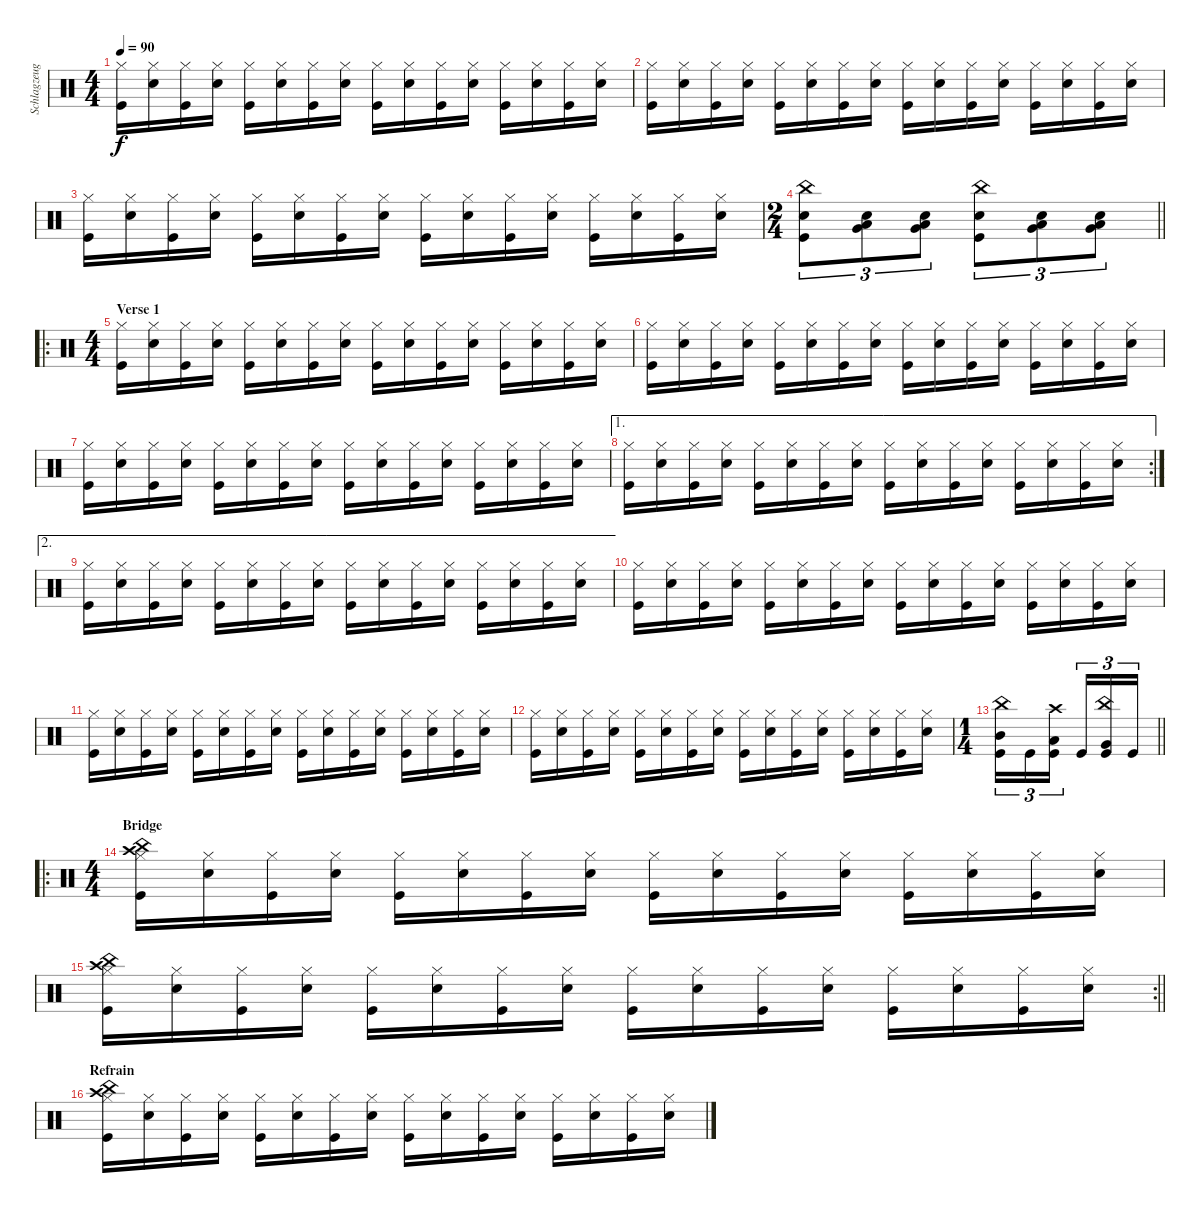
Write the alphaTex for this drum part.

\track ("Schlagzeug" "Schlagzeug") {instrument percussion}
\staff {score}
\articulation defaults
\ts (4 4)
\tempo 90
\clef neutral
\ks c
("Hi-Hat (closed)" "Kick (hit)").16{dy f} ("Hi-Hat (closed)" "Snare (hit) 2").16 ("Hi-Hat (closed)" "Kick (hit)").16 ("Hi-Hat (closed)" "Snare (hit) 2").16 ("Hi-Hat (closed)" "Kick (hit)").16 ("Hi-Hat (closed)" "Snare (hit) 2").16 ("Hi-Hat (closed)" "Kick (hit)").16 ("Hi-Hat (closed)" "Snare (hit) 2").16 ("Hi-Hat (closed)" "Kick (hit)").16 ("Hi-Hat (closed)" "Snare (hit) 2").16 ("Hi-Hat (closed)" "Kick (hit)").16 ("Hi-Hat (closed)" "Snare (hit) 2").16 ("Hi-Hat (closed)" "Kick (hit)").16 ("Hi-Hat (closed)" "Snare (hit) 2").16 ("Hi-Hat (closed)" "Kick (hit)").16 ("Hi-Hat (closed)" "Snare (hit) 2").16 |
("Hi-Hat (closed)" "Kick (hit)").16 ("Hi-Hat (closed)" "Snare (hit) 2").16 ("Hi-Hat (closed)" "Kick (hit)").16 ("Hi-Hat (closed)" "Snare (hit) 2").16 ("Hi-Hat (closed)" "Kick (hit)").16 ("Hi-Hat (closed)" "Snare (hit) 2").16 ("Hi-Hat (closed)" "Kick (hit)").16 ("Hi-Hat (closed)" "Snare (hit) 2").16 ("Hi-Hat (closed)" "Kick (hit)").16 ("Hi-Hat (closed)" "Snare (hit) 2").16 ("Hi-Hat (closed)" "Kick (hit)").16 ("Hi-Hat (closed)" "Snare (hit) 2").16 ("Hi-Hat (closed)" "Kick (hit)").16 ("Hi-Hat (closed)" "Snare (hit) 2").16 ("Hi-Hat (closed)" "Kick (hit)").16 ("Hi-Hat (closed)" "Snare (hit) 2").16 |
("Hi-Hat (closed)" "Kick (hit)").16 ("Hi-Hat (closed)" "Snare (hit) 2").16 ("Hi-Hat (closed)" "Kick (hit)").16 ("Hi-Hat (closed)" "Snare (hit) 2").16 ("Hi-Hat (closed)" "Kick (hit)").16 ("Hi-Hat (closed)" "Snare (hit) 2").16 ("Hi-Hat (closed)" "Kick (hit)").16 ("Hi-Hat (closed)" "Snare (hit) 2").16 ("Hi-Hat (closed)" "Kick (hit)").16 ("Hi-Hat (closed)" "Snare (hit) 2").16 ("Hi-Hat (closed)" "Kick (hit)").16 ("Hi-Hat (closed)" "Snare (hit) 2").16 ("Hi-Hat (closed)" "Kick (hit)").16 ("Hi-Hat (closed)" "Snare (hit) 2").16 ("Hi-Hat (closed)" "Kick (hit)").16 ("Hi-Hat (closed)" "Snare (hit) 2").16 |
\ts (2 4)
\barLineRight lightlight
("China (hit)" "Snare (hit) 2" "Kick (hit)").8{tu (3 2)} ("Very Low Tom (hit)" "Low Tom (hit)" "Snare (hit) 2").8{tu (3 2)} ("Very Low Tom (hit)" "Low Tom (hit)" "Snare (hit) 2").8{tu (3 2)} ("China (hit)" "Snare (hit) 2" "Kick (hit)").8{tu (3 2)} ("Very Low Tom (hit)" "Low Tom (hit)" "Snare (hit) 2").8{tu (3 2)} ("Very Low Tom (hit)" "Low Tom (hit)" "Snare (hit) 2").8{tu (3 2)} |
\ro
\ts (4 4)
\section ("" "Verse 1")
("Hi-Hat (closed)" "Kick (hit)").16 ("Hi-Hat (closed)" "Snare (hit) 2").16 ("Hi-Hat (closed)" "Kick (hit)").16 ("Hi-Hat (closed)" "Snare (hit) 2").16 ("Hi-Hat (closed)" "Kick (hit)").16 ("Hi-Hat (closed)" "Snare (hit) 2").16 ("Hi-Hat (closed)" "Kick (hit)").16 ("Hi-Hat (closed)" "Snare (hit) 2").16 ("Hi-Hat (closed)" "Kick (hit)").16 ("Hi-Hat (closed)" "Snare (hit) 2").16 ("Hi-Hat (closed)" "Kick (hit)").16 ("Hi-Hat (closed)" "Snare (hit) 2").16 ("Hi-Hat (closed)" "Kick (hit)").16 ("Hi-Hat (closed)" "Snare (hit) 2").16 ("Hi-Hat (closed)" "Kick (hit)").16 ("Hi-Hat (closed)" "Snare (hit) 2").16 |
("Hi-Hat (closed)" "Kick (hit)").16 ("Hi-Hat (closed)" "Snare (hit) 2").16 ("Hi-Hat (closed)" "Kick (hit)").16 ("Hi-Hat (closed)" "Snare (hit) 2").16 ("Hi-Hat (closed)" "Kick (hit)").16 ("Hi-Hat (closed)" "Snare (hit) 2").16 ("Hi-Hat (closed)" "Kick (hit)").16 ("Hi-Hat (closed)" "Snare (hit) 2").16 ("Hi-Hat (closed)" "Kick (hit)").16 ("Hi-Hat (closed)" "Snare (hit) 2").16 ("Hi-Hat (closed)" "Kick (hit)").16 ("Hi-Hat (closed)" "Snare (hit) 2").16 ("Hi-Hat (closed)" "Kick (hit)").16 ("Hi-Hat (closed)" "Snare (hit) 2").16 ("Hi-Hat (closed)" "Kick (hit)").16 ("Hi-Hat (closed)" "Snare (hit) 2").16 |
("Hi-Hat (closed)" "Kick (hit)").16 ("Hi-Hat (closed)" "Snare (hit) 2").16 ("Hi-Hat (closed)" "Kick (hit)").16 ("Hi-Hat (closed)" "Snare (hit) 2").16 ("Hi-Hat (closed)" "Kick (hit)").16 ("Hi-Hat (closed)" "Snare (hit) 2").16 ("Hi-Hat (closed)" "Kick (hit)").16 ("Hi-Hat (closed)" "Snare (hit) 2").16 ("Hi-Hat (closed)" "Kick (hit)").16 ("Hi-Hat (closed)" "Snare (hit) 2").16 ("Hi-Hat (closed)" "Kick (hit)").16 ("Hi-Hat (closed)" "Snare (hit) 2").16 ("Hi-Hat (closed)" "Kick (hit)").16 ("Hi-Hat (closed)" "Snare (hit) 2").16 ("Hi-Hat (closed)" "Kick (hit)").16 ("Hi-Hat (closed)" "Snare (hit) 2").16 |
\ae 1
\rc 2
("Hi-Hat (closed)" "Kick (hit)").16 ("Hi-Hat (closed)" "Snare (hit) 2").16 ("Hi-Hat (closed)" "Kick (hit)").16 ("Hi-Hat (closed)" "Snare (hit) 2").16 ("Hi-Hat (closed)" "Kick (hit)").16 ("Hi-Hat (closed)" "Snare (hit) 2").16 ("Hi-Hat (closed)" "Kick (hit)").16 ("Hi-Hat (closed)" "Snare (hit) 2").16 ("Hi-Hat (closed)" "Kick (hit)").16 ("Hi-Hat (closed)" "Snare (hit) 2").16 ("Hi-Hat (closed)" "Kick (hit)").16 ("Hi-Hat (closed)" "Snare (hit) 2").16 ("Hi-Hat (closed)" "Kick (hit)").16 ("Hi-Hat (closed)" "Snare (hit) 2").16 ("Hi-Hat (closed)" "Kick (hit)").16 ("Hi-Hat (closed)" "Snare (hit) 2").16 |
\ae 2
("Hi-Hat (closed)" "Kick (hit)").16 ("Hi-Hat (closed)" "Snare (hit) 2").16 ("Hi-Hat (closed)" "Kick (hit)").16 ("Hi-Hat (closed)" "Snare (hit) 2").16 ("Hi-Hat (closed)" "Kick (hit)").16 ("Hi-Hat (closed)" "Snare (hit) 2").16 ("Hi-Hat (closed)" "Kick (hit)").16 ("Hi-Hat (closed)" "Snare (hit) 2").16 ("Hi-Hat (closed)" "Kick (hit)").16 ("Hi-Hat (closed)" "Snare (hit) 2").16 ("Hi-Hat (closed)" "Kick (hit)").16 ("Hi-Hat (closed)" "Snare (hit) 2").16 ("Hi-Hat (closed)" "Kick (hit)").16 ("Hi-Hat (closed)" "Snare (hit) 2").16 ("Hi-Hat (closed)" "Kick (hit)").16 ("Hi-Hat (closed)" "Snare (hit) 2").16 |
("Hi-Hat (closed)" "Kick (hit)").16 ("Hi-Hat (closed)" "Snare (hit) 2").16 ("Hi-Hat (closed)" "Kick (hit)").16 ("Hi-Hat (closed)" "Snare (hit) 2").16 ("Hi-Hat (closed)" "Kick (hit)").16 ("Hi-Hat (closed)" "Snare (hit) 2").16 ("Hi-Hat (closed)" "Kick (hit)").16 ("Hi-Hat (closed)" "Snare (hit) 2").16 ("Hi-Hat (closed)" "Kick (hit)").16 ("Hi-Hat (closed)" "Snare (hit) 2").16 ("Hi-Hat (closed)" "Kick (hit)").16 ("Hi-Hat (closed)" "Snare (hit) 2").16 ("Hi-Hat (closed)" "Kick (hit)").16 ("Hi-Hat (closed)" "Snare (hit) 2").16 ("Hi-Hat (closed)" "Kick (hit)").16 ("Hi-Hat (closed)" "Snare (hit) 2").16 |
("Hi-Hat (closed)" "Kick (hit)").16 ("Hi-Hat (closed)" "Snare (hit) 2").16 ("Hi-Hat (closed)" "Kick (hit)").16 ("Hi-Hat (closed)" "Snare (hit) 2").16 ("Hi-Hat (closed)" "Kick (hit)").16 ("Hi-Hat (closed)" "Snare (hit) 2").16 ("Hi-Hat (closed)" "Kick (hit)").16 ("Hi-Hat (closed)" "Snare (hit) 2").16 ("Hi-Hat (closed)" "Kick (hit)").16 ("Hi-Hat (closed)" "Snare (hit) 2").16 ("Hi-Hat (closed)" "Kick (hit)").16 ("Hi-Hat (closed)" "Snare (hit) 2").16 ("Hi-Hat (closed)" "Kick (hit)").16 ("Hi-Hat (closed)" "Snare (hit) 2").16 ("Hi-Hat (closed)" "Kick (hit)").16 ("Hi-Hat (closed)" "Snare (hit) 2").16 |
("Hi-Hat (closed)" "Kick (hit)").16 ("Hi-Hat (closed)" "Snare (hit) 2").16 ("Hi-Hat (closed)" "Kick (hit)").16 ("Hi-Hat (closed)" "Snare (hit) 2").16 ("Hi-Hat (closed)" "Kick (hit)").16 ("Hi-Hat (closed)" "Snare (hit) 2").16 ("Hi-Hat (closed)" "Kick (hit)").16 ("Hi-Hat (closed)" "Snare (hit) 2").16 ("Hi-Hat (closed)" "Kick (hit)").16 ("Hi-Hat (closed)" "Snare (hit) 2").16 ("Hi-Hat (closed)" "Kick (hit)").16 ("Hi-Hat (closed)" "Snare (hit) 2").16 ("Hi-Hat (closed)" "Kick (hit)").16 ("Hi-Hat (closed)" "Snare (hit) 2").16 ("Hi-Hat (closed)" "Kick (hit)").16 ("Hi-Hat (closed)" "Snare (hit) 2").16 |
\ts (1 4)
\barLineRight lightlight
("China (hit)" "Mid Tom (hit)" "Kick (hit)").16{tu (3 2)} "Kick (hit)".16{tu (3 2)} ("Crash high (hit)" "Low Tom (hit)" "Kick (hit)").16{tu (3 2) beam splitsecondary} "Kick (hit)".16{tu (3 2)} ("China (hit)" "Very Low Tom (hit)" "Kick (hit)").16{tu (3 2)} "Kick (hit)".16{tu (3 2)} |
\ro
\ts (4 4)
\section ("" "Bridge")
("Crash high (hit)" "China (hit)" "Hi-Hat (closed)" "Kick (hit)").16 ("Hi-Hat (closed)" "Snare (hit) 2").16 ("Hi-Hat (closed)" "Kick (hit)").16 ("Hi-Hat (closed)" "Snare (hit) 2").16 ("Hi-Hat (closed)" "Kick (hit)").16 ("Hi-Hat (closed)" "Snare (hit) 2").16 ("Hi-Hat (closed)" "Kick (hit)").16 ("Hi-Hat (closed)" "Snare (hit) 2").16 ("Hi-Hat (closed)" "Kick (hit)").16 ("Hi-Hat (closed)" "Snare (hit) 2").16 ("Hi-Hat (closed)" "Kick (hit)").16 ("Hi-Hat (closed)" "Snare (hit) 2").16 ("Hi-Hat (closed)" "Kick (hit)").16 ("Hi-Hat (closed)" "Snare (hit) 2").16 ("Hi-Hat (closed)" "Kick (hit)").16 ("Hi-Hat (closed)" "Snare (hit) 2").16 |
\rc 2
\barLineRight lightlight
("Crash high (hit)" "China (hit)" "Hi-Hat (closed)" "Kick (hit)").16 ("Hi-Hat (closed)" "Snare (hit) 2").16 ("Hi-Hat (closed)" "Kick (hit)").16 ("Hi-Hat (closed)" "Snare (hit) 2").16 ("Hi-Hat (closed)" "Kick (hit)").16 ("Hi-Hat (closed)" "Snare (hit) 2").16 ("Hi-Hat (closed)" "Kick (hit)").16 ("Hi-Hat (closed)" "Snare (hit) 2").16 ("Hi-Hat (closed)" "Kick (hit)").16 ("Hi-Hat (closed)" "Snare (hit) 2").16 ("Hi-Hat (closed)" "Kick (hit)").16 ("Hi-Hat (closed)" "Snare (hit) 2").16 ("Hi-Hat (closed)" "Kick (hit)").16 ("Hi-Hat (closed)" "Snare (hit) 2").16 ("Hi-Hat (closed)" "Kick (hit)").16 ("Hi-Hat (closed)" "Snare (hit) 2").16 |
\section ("" "Refrain")
("Crash high (hit)" "China (hit)" "Hi-Hat (closed)" "Kick (hit)").16 ("Hi-Hat (closed)" "Snare (hit) 2").16 ("Hi-Hat (closed)" "Kick (hit)").16 ("Hi-Hat (closed)" "Snare (hit) 2").16 ("Hi-Hat (closed)" "Kick (hit)").16 ("Hi-Hat (closed)" "Snare (hit) 2").16 ("Hi-Hat (closed)" "Kick (hit)").16 ("Hi-Hat (closed)" "Snare (hit) 2").16 ("Hi-Hat (closed)" "Kick (hit)").16 ("Hi-Hat (closed)" "Snare (hit) 2").16 ("Hi-Hat (closed)" "Kick (hit)").16 ("Hi-Hat (closed)" "Snare (hit) 2").16 ("Hi-Hat (closed)" "Kick (hit)").16 ("Hi-Hat (closed)" "Snare (hit) 2").16 ("Hi-Hat (closed)" "Kick (hit)").16 ("Hi-Hat (closed)" "Snare (hit) 2").16
